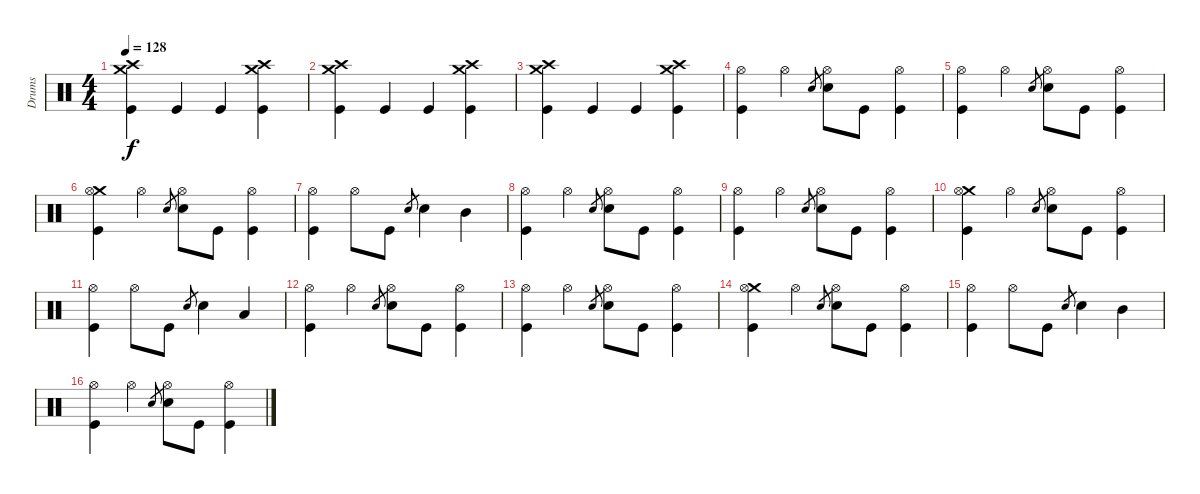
\track ("Drums" "Drums") {instrument percussion}
\staff {score}
\articulation defaults
\ts (4 4)
\tempo 128
\clef neutral
\ks c
("Crash medium (hit)" "Crash high (hit)" "Kick (hit)").4{dy f} "Kick (hit)".4 "Kick (hit)".4 ("Crash medium (hit)" "Crash high (hit)" "Kick (hit)").4 |
("Crash medium (hit)" "Crash high (hit)" "Kick (hit)").4 "Kick (hit)".4 "Kick (hit)".4 ("Crash medium (hit)" "Crash high (hit)" "Kick (hit)").4 |
("Crash medium (hit)" "Crash high (hit)" "Kick (hit)").4 "Kick (hit)".4 "Kick (hit)".4 ("Crash medium (hit)" "Crash high (hit)" "Kick (hit)").4 |
\section ("" "")
("Hi-Hat (open)" "Kick (hit)").4 "Hi-Hat (open)".4 "Snare (hit) 2".8{gr} ("Hi-Hat (open)" "Snare (hit) 2").8 "Kick (hit)".8 ("Hi-Hat (open)" "Kick (hit)").4 |
("Hi-Hat (open)" "Kick (hit)").4 "Hi-Hat (open)".4 "Snare (hit) 2".8{gr} ("Hi-Hat (open)" "Snare (hit) 2").8 "Kick (hit)".8 ("Hi-Hat (open)" "Kick (hit)").4 |
("Crash medium (hit)" "Hi-Hat (open)" "Kick (hit)").4 "Hi-Hat (open)".4 "Snare (hit) 2".8{gr} ("Hi-Hat (open)" "Snare (hit) 2").8 "Kick (hit)".8 ("Hi-Hat (open)" "Kick (hit)").4 |
("Hi-Hat (open)" "Kick (hit)").4 "Hi-Hat (open)".8 "Kick (hit)".8 "Snare (hit) 2".8{gr} "Snare (hit) 2".4 "Mid Tom (hit)".4 |
("Hi-Hat (open)" "Kick (hit)").4 "Hi-Hat (open)".4 "Snare (hit) 2".8{gr} ("Hi-Hat (open)" "Snare (hit) 2").8 "Kick (hit)".8 ("Hi-Hat (open)" "Kick (hit)").4 |
("Hi-Hat (open)" "Kick (hit)").4 "Hi-Hat (open)".4 "Snare (hit) 2".8{gr} ("Hi-Hat (open)" "Snare (hit) 2").8 "Kick (hit)".8 ("Hi-Hat (open)" "Kick (hit)").4 |
("Crash medium (hit)" "Hi-Hat (open)" "Kick (hit)").4 "Hi-Hat (open)".4 "Snare (hit) 2".8{gr} ("Hi-Hat (open)" "Snare (hit) 2").8 "Kick (hit)".8 ("Hi-Hat (open)" "Kick (hit)").4 |
("Hi-Hat (open)" "Kick (hit)").4 "Hi-Hat (open)".8 "Kick (hit)".8 "Snare (hit) 2".8{gr} "Snare (hit) 2".4 "Low Tom (hit)".4 |
("Hi-Hat (open)" "Kick (hit)").4 "Hi-Hat (open)".4 "Snare (hit) 2".8{gr} ("Hi-Hat (open)" "Snare (hit) 2").8 "Kick (hit)".8 ("Hi-Hat (open)" "Kick (hit)").4 |
("Hi-Hat (open)" "Kick (hit)").4 "Hi-Hat (open)".4 "Snare (hit) 2".8{gr} ("Hi-Hat (open)" "Snare (hit) 2").8 "Kick (hit)".8 ("Hi-Hat (open)" "Kick (hit)").4 |
("Crash medium (hit)" "Hi-Hat (open)" "Kick (hit)").4 "Hi-Hat (open)".4 "Snare (hit) 2".8{gr} ("Hi-Hat (open)" "Snare (hit) 2").8 "Kick (hit)".8 ("Hi-Hat (open)" "Kick (hit)").4 |
("Hi-Hat (open)" "Kick (hit)").4 "Hi-Hat (open)".8 "Kick (hit)".8 "Snare (hit) 2".8{gr} "Snare (hit) 2".4 "Mid Tom (hit)".4 |
("Hi-Hat (open)" "Kick (hit)").4 "Hi-Hat (open)".4 "Snare (hit) 2".8{gr} ("Hi-Hat (open)" "Snare (hit) 2").8 "Kick (hit)".8 ("Hi-Hat (open)" "Kick (hit)").4
